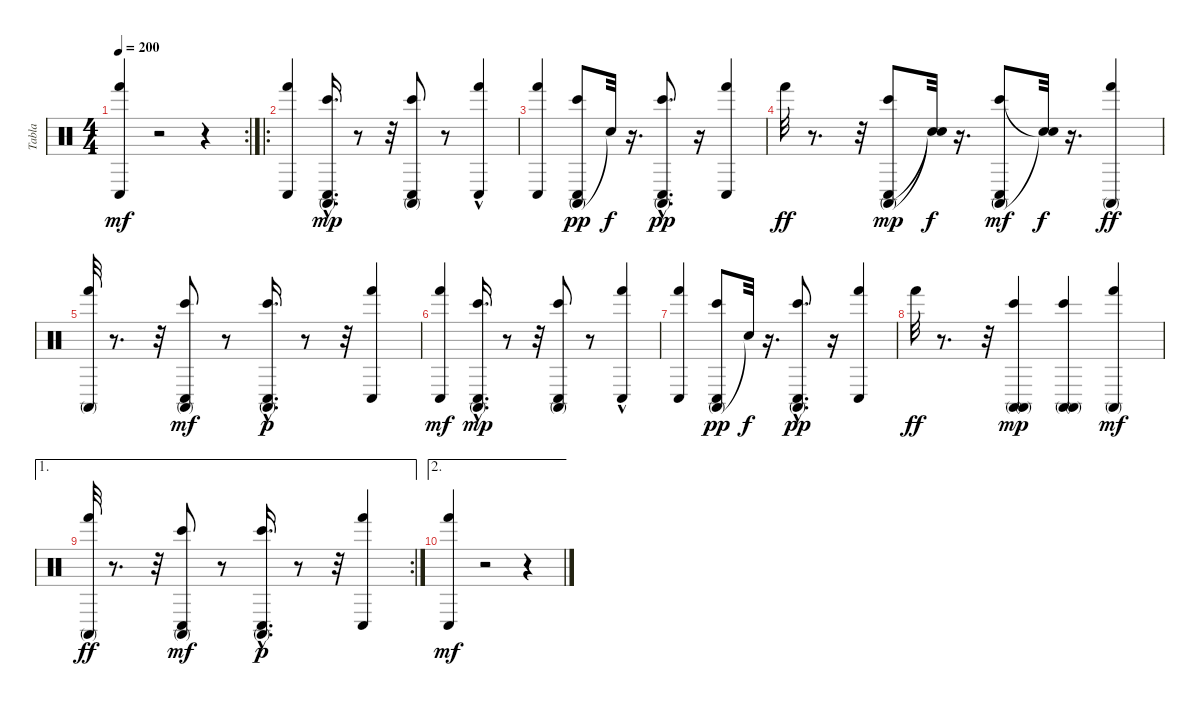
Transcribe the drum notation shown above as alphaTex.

\track ("Tabla" "Tabla") {instrument percussion}
\staff {score}
\articulation defaults
\rc 2
\ts (4 4)
\tempo 200
\clef neutral
\ks c
("Hand (hit)" "Conga low (hit)").4{dy mf} r.2 r.4 |
\ro
("Hand (hit)" "Conga low (hit)").4 ("Conga low (hit)"{hac} "Conga high (mute)" "Bongo High (hit)").16{d dy mp} r.8 r.32 ("Conga low (hit)" "Conga high (mute)" "Bongo High (hit)").8 r.8 ("Conga low (hit)"{hac} "Hand (hit)").4 |
("Hand (hit)" "Conga low (hit)").4 ("Conga high (mute)" "Bongo High (hit)" "Conga low (hit)").8{dy pp} "Snare (hit)"{t}.32{dy f} r.16{d} ("Conga high (mute)" "Bongo High (hit)" "Conga low (hit)"{hac}).8{d dy pp} r.16 ("Hand (hit)" "Conga low (hit)").4 |
"Hand (hit)".32{dy ff} r.8{d} r.32 ("Conga low (hit)" "Conga high (mute)" "Bongo High (hit)").8{dy mp} ("Snare (hit)"{t} "Snare (hit)"{t}).32{dy f} r.16{d} ("Conga high (mute)" "Bongo High (hit)" "Conga low (hit)").8{dy mf} ("Snare (hit)"{t} "Snare (hit)"{t}).32{dy f} r.16{d} ("Conga high (mute)" "Hand (hit)").4{dy ff} |
("Hand (hit)" "Conga high (mute)").32 r.8{d} r.32 ("Conga low (hit)" "Conga high (mute)" "Bongo High (hit)").8{dy mf} r.8 ("Conga high (mute)" "Bongo High (hit)" "Conga low (hit)"{hac}).16{d dy p} r.8 r.32 ("Conga low (hit)" "Hand (hit)").4 |
("Hand (hit)" "Conga low (hit)").4{dy mf} ("Conga low (hit)"{hac} "Conga high (mute)" "Bongo High (hit)").16{d dy mp} r.8 r.32 ("Conga low (hit)" "Conga high (mute)" "Bongo High (hit)").8 r.8 ("Conga low (hit)"{hac} "Hand (hit)").4 |
("Hand (hit)" "Conga low (hit)").4 ("Conga high (mute)" "Bongo High (hit)" "Conga low (hit)").8{dy pp} "Snare (hit)"{t}.32{dy f} r.16{d} ("Conga high (mute)" "Bongo High (hit)" "Conga low (hit)"{hac}).8{d dy pp} r.16 ("Hand (hit)" "Conga low (hit)").4 |
"Hand (hit)".32{dy ff} r.8{d} r.32 ("Conga high (mute)" "Bongo High (hit)" "Conga high (mute)").4{dy mp} ("Conga high (mute)" "Conga high (mute)" "Bongo High (hit)").4 ("Hand (hit)" "Conga high (mute)").4{dy mf} |
\ae 1
\rc 2
("Hand (hit)" "Conga high (mute)").32{dy ff} r.8{d} r.32 ("Conga low (hit)" "Conga high (mute)" "Bongo High (hit)").8{dy mf} r.8 ("Conga high (mute)" "Bongo High (hit)" "Conga low (hit)"{hac}).16{d dy p} r.8 r.32 ("Conga low (hit)" "Hand (hit)").4 |
\ae 2
("Hand (hit)" "Conga low (hit)").4{dy mf} r.2 r.4
